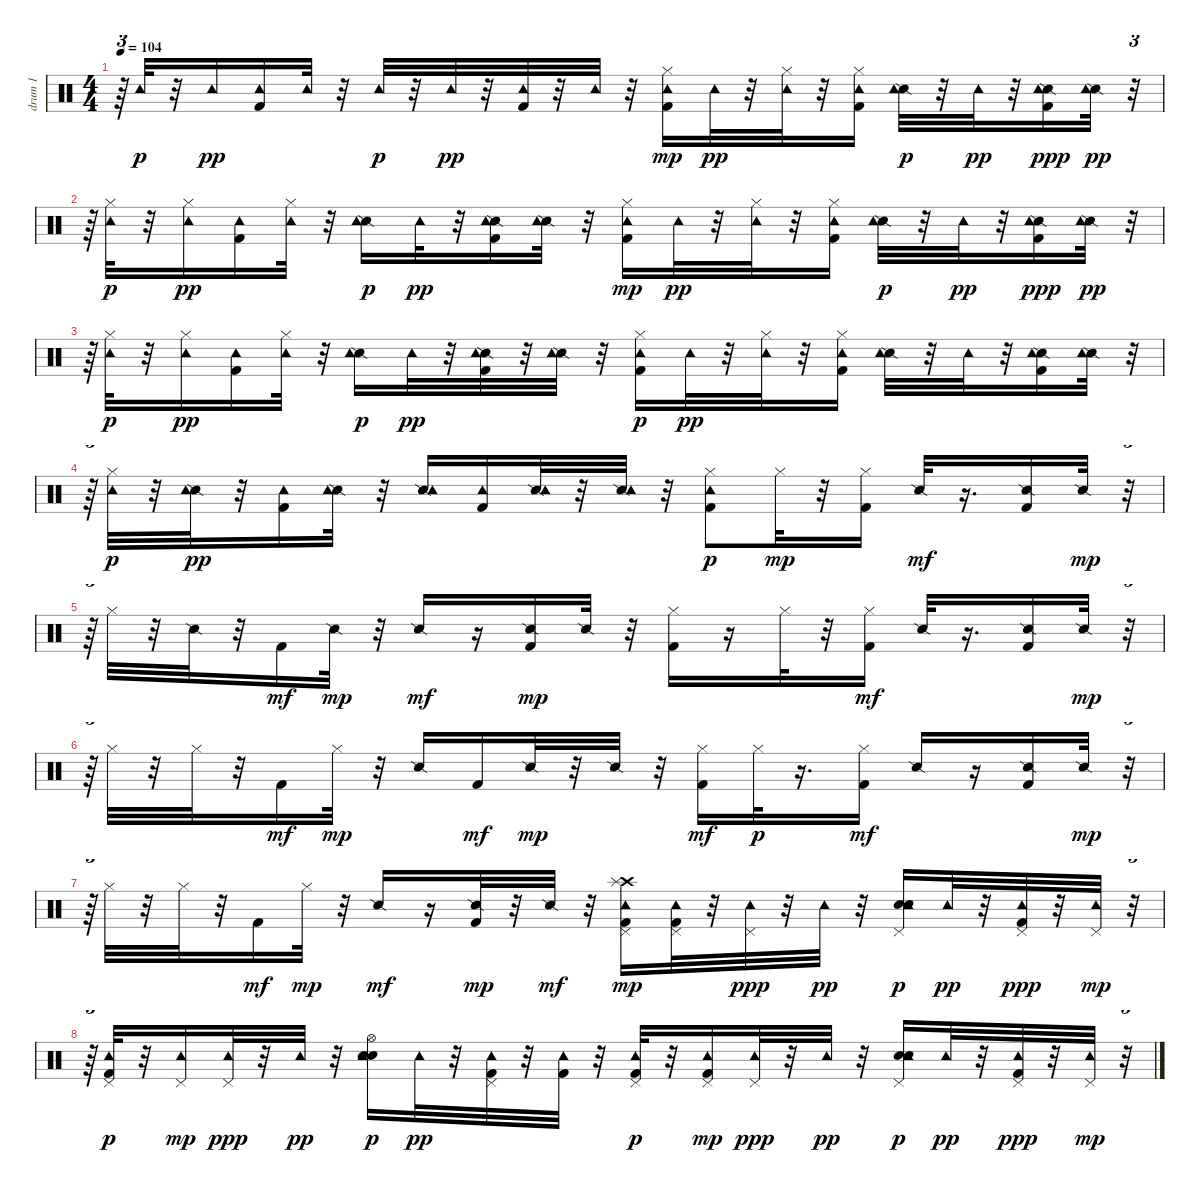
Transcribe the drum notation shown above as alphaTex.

\track ("drum 1" "drum 1") {instrument percussion}
\staff {score}
\articulation defaults
\ts (4 4)
\tempo 104
\clef neutral
\ks c
r.64{tu (3 2) dy pp} "Tambourine (hit)".32{dy p} r.32 "Tambourine (hit)".16{dy pp} ("Kick (hit) 2" "Tambourine (hit)").16 "Tambourine (hit)".32 r.32 "Tambourine (hit)".32{dy p} r.32 "Tambourine (hit)".32{dy pp} r.32 ("Kick (hit) 2" "Tambourine (hit)").32 r.32 "Tambourine (hit)".32 r.32 ("Hi-Hat (closed)" "Kick (hit) 2" "Tambourine (hit)").16{dy mp} "Tambourine (hit)".32{dy pp} r.32 ("Hi-Hat (closed)" "Tambourine (hit)").32 r.32 ("Hi-Hat (closed)" "Kick (hit) 2" "Tambourine (hit)").16 ("Snare (side stick) 2" "Tambourine (hit)").32{dy p} r.32 "Tambourine (hit)".32{dy pp} r.32 ("Snare (side stick) 2" "Kick (hit) 2" "Tambourine (hit)").16{dy ppp} ("Snare (side stick) 2" "Tambourine (hit)").32{dy pp} r.32{tu (3 2)} |
r.64{tu (3 2)} ("Hi-Hat (closed)" "Tambourine (hit)").32{dy p} r.32 ("Hi-Hat (closed)" "Tambourine (hit)").16{dy pp} ("Kick (hit) 2" "Tambourine (hit)").16 ("Hi-Hat (closed)" "Tambourine (hit)").32 r.32 ("Snare (side stick) 2" "Tambourine (hit)").16{dy p} "Tambourine (hit)".32{dy pp} r.32 ("Snare (side stick) 2" "Kick (hit) 2" "Tambourine (hit)").16 ("Snare (side stick) 2" "Tambourine (hit)").32 r.32 ("Hi-Hat (closed)" "Kick (hit) 2" "Tambourine (hit)").16{dy mp} "Tambourine (hit)".32{dy pp} r.32 ("Hi-Hat (closed)" "Tambourine (hit)").32 r.32 ("Hi-Hat (closed)" "Kick (hit) 2" "Tambourine (hit)").16 ("Snare (side stick) 2" "Tambourine (hit)").32{dy p} r.32 "Tambourine (hit)".32{dy pp} r.32 ("Snare (side stick) 2" "Kick (hit) 2" "Tambourine (hit)").16{dy ppp} ("Snare (side stick) 2" "Tambourine (hit)").32{dy pp} r.32{tu (3 2)} |
r.64{tu (3 2)} ("Hi-Hat (closed)" "Tambourine (hit)").32{dy p} r.32 ("Hi-Hat (closed)" "Tambourine (hit)").16{dy pp} ("Kick (hit) 2" "Tambourine (hit)").16 ("Hi-Hat (closed)" "Tambourine (hit)").32 r.32 ("Snare (side stick) 2" "Tambourine (hit)").16{dy p} "Tambourine (hit)".32{dy pp} r.32 ("Snare (side stick) 2" "Kick (hit) 2" "Tambourine (hit)").32 r.32 ("Snare (side stick) 2" "Tambourine (hit)").32 r.32 ("Hi-Hat (closed)" "Kick (hit) 2" "Tambourine (hit)").16{dy p} "Tambourine (hit)".32{dy pp} r.32 ("Hi-Hat (closed)" "Tambourine (hit)").32 r.32 ("Hi-Hat (closed)" "Kick (hit) 2" "Tambourine (hit)").16 ("Snare (side stick) 2" "Tambourine (hit)").32 r.32 "Tambourine (hit)".32 r.32 ("Snare (side stick) 2" "Kick (hit) 2" "Tambourine (hit)").16 ("Snare (side stick) 2" "Tambourine (hit)").32 r.32{tu (3 2)} |
r.64{tu (3 2)} ("Hi-Hat (closed)" "Tambourine (hit)").32{dy p} r.32 ("Snare (side stick) 2" "Tambourine (hit)").32{dy pp} r.32 ("Kick (hit) 2" "Tambourine (hit)").16 ("Snare (side stick) 2" "Tambourine (hit)").32 r.32 ("Snare (side stick) 2" "Tambourine (hit)").16 ("Kick (hit) 2" "Tambourine (hit)").16 ("Snare (side stick) 2" "Tambourine (hit)").32 r.32 ("Snare (side stick) 2" "Tambourine (hit)").32 r.32 ("Hi-Hat (closed)" "Kick (hit) 2" "Tambourine (hit)").8{dy p} "Hi-Hat (closed)".32{dy mp} r.32 ("Hi-Hat (closed)" "Kick (hit) 2").16 "Snare (side stick) 2".32{dy mf} r.16{d} ("Snare (side stick) 2" "Kick (hit) 2").16 "Snare (side stick) 2".32{dy mp} r.32{tu (3 2)} |
r.64{tu (3 2)} "Hi-Hat (closed)".32 r.32 "Snare (side stick) 2".32 r.32 "Kick (hit) 2".16{dy mf} "Snare (side stick) 2".32{dy mp} r.32 "Snare (side stick) 2".16{dy mf} r.16 ("Snare (side stick) 2" "Kick (hit) 2").16{dy mp} "Snare (side stick) 2".32 r.32 ("Hi-Hat (closed)" "Kick (hit) 2").16 r.16 "Hi-Hat (closed)".32 r.32 ("Hi-Hat (closed)" "Kick (hit) 2").16{dy mf} "Snare (side stick) 2".32 r.16{d} ("Snare (side stick) 2" "Kick (hit) 2").16 "Snare (side stick) 2".32{dy mp} r.32{tu (3 2)} |
r.64{tu (3 2)} "Hi-Hat (closed)".32 r.32 "Hi-Hat (closed)".32 r.32 "Kick (hit) 2".16{dy mf} "Hi-Hat (closed)".32{dy mp} r.32 "Snare (side stick) 2".16 "Kick (hit) 2".16{dy mf} "Snare (side stick) 2".32{dy mp} r.32 "Snare (side stick) 2".32 r.32 ("Hi-Hat (closed)" "Kick (hit) 2").16{dy mf} "Hi-Hat (closed)".32{dy p} r.16{d} ("Hi-Hat (closed)" "Kick (hit) 2").16{dy mf} "Snare (side stick) 2".16 r.16 ("Snare (side stick) 2" "Kick (hit) 2").16 "Snare (side stick) 2".32{dy mp} r.32{tu (3 2)} |
r.64{tu (3 2)} "Hi-Hat (closed)".32 r.32 "Hi-Hat (closed)".32 r.32 "Kick (hit) 2".16{dy mf} "Hi-Hat (closed)".32{dy mp} r.32 "Snare (side stick) 2".16{dy mf} r.16 ("Snare (side stick) 2" "Kick (hit) 2").32{dy mp} r.32 "Snare (side stick) 2".32{dy mf} r.32 ("Kick (hit) 2" "Pedal Hi-Hat (hit)" "Crash high (hit)" "Tambourine (hit)" "Splash (hit)").16{dy mp} ("Kick (hit) 2" "Tambourine (hit)" "Pedal Hi-Hat (hit)").32 r.32 ("Pedal Hi-Hat (hit)" "Tambourine (hit)").32{dy ppp} r.32 "Tambourine (hit)".32{dy pp} r.32 ("Hand Clap (hit)" "Electric Snare (hit)" "Pedal Hi-Hat (hit)" "Tambourine (hit)").16{dy p} "Tambourine (hit)".32{dy pp} r.32 ("Kick (hit) 2" "Pedal Hi-Hat (hit)" "Tambourine (hit)").32{dy ppp} r.32 ("Tambourine (hit)" "Pedal Hi-Hat (hit)").32{dy mp} r.32{tu (3 2)} |
r.64{tu (3 2)} ("Kick (hit) 2" "Pedal Hi-Hat (hit)" "Tambourine (hit)").32{dy p} r.32 ("Tambourine (hit)" "Pedal Hi-Hat (hit)").16{dy mp} ("Pedal Hi-Hat (hit)" "Tambourine (hit)").32{dy ppp} r.32 "Tambourine (hit)".32{dy pp} r.32 ("Hand Clap (hit)" "Electric Snare (hit)" "Hi-Hat (open)" "Tambourine (hit)").16{dy p} "Tambourine (hit)".32{dy pp} r.32 ("Kick (hit) 2" "Pedal Hi-Hat (hit)" "Tambourine (hit)").32 r.32 ("Kick (hit) 2" "Tambourine (hit)").32 r.32 ("Kick (hit) 2" "Pedal Hi-Hat (hit)" "Tambourine (hit)").32{dy p} r.32 ("Kick (hit) 2" "Tambourine (hit)" "Pedal Hi-Hat (hit)").16{dy mp} ("Pedal Hi-Hat (hit)" "Tambourine (hit)").32{dy ppp} r.32 "Tambourine (hit)".32{dy pp} r.32 ("Hand Clap (hit)" "Electric Snare (hit)" "Pedal Hi-Hat (hit)" "Tambourine (hit)").16{dy p} "Tambourine (hit)".32{dy pp} r.32 ("Kick (hit) 2" "Pedal Hi-Hat (hit)" "Tambourine (hit)").32{dy ppp} r.32 ("Tambourine (hit)" "Pedal Hi-Hat (hit)").32{dy mp} r.32{tu (3 2)}
